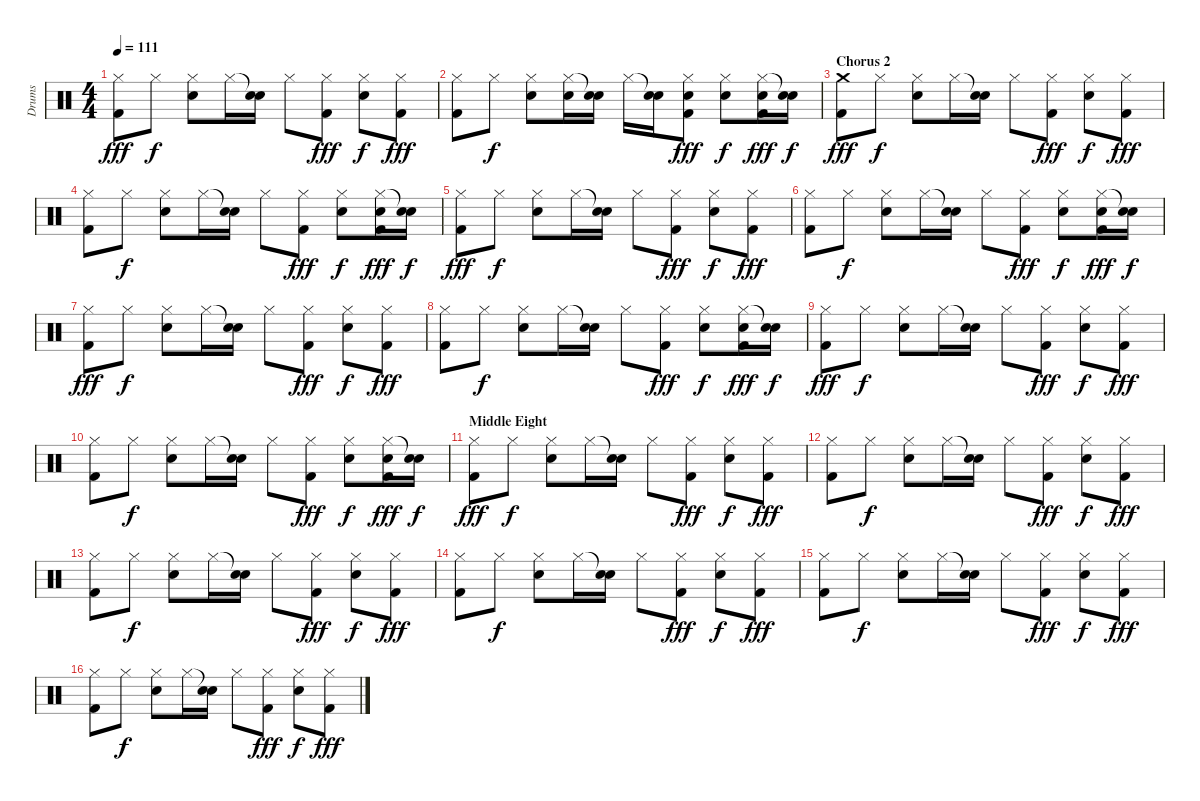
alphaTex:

\track ("Drums" "Drums") {instrument percussion}
\staff {score}
\articulation defaults
\ts (4 4)
\tempo 111
\clef neutral
\ks c
("Hi-Hat (closed)" "Kick (hit) 2").8{dy fff} "Hi-Hat (closed)".8{dy f} ("Hi-Hat (closed)" "Snare (hit) 2").8 "Hi-Hat (closed)".16 ("Snare (hit)"{t} "Snare (hit) 2").16 "Hi-Hat (closed)".8 ("Hi-Hat (closed)" "Kick (hit) 2").8{dy fff} ("Hi-Hat (closed)" "Snare (hit) 2").8{dy f} ("Hi-Hat (closed)" "Kick (hit) 2").8{dy fff} |
("Hi-Hat (closed)" "Kick (hit) 2").8 "Hi-Hat (closed)".8{dy f} ("Hi-Hat (closed)" "Snare (hit) 2").8 ("Hi-Hat (closed)" "Snare (hit) 2").16 ("Snare (hit)"{t} "Snare (hit) 2").16 "Hi-Hat (closed)".16 ("Snare (hit)"{t} "Snare (hit) 2").16 ("Hi-Hat (closed)" "Snare (hit) 2" "Kick (hit) 2").8{dy fff} ("Hi-Hat (closed)" "Snare (hit) 2").8{dy f} ("Hi-Hat (closed)" "Snare (hit) 2" "Kick (hit) 2").16{dy fff} ("Snare (hit)"{t} "Snare (hit) 2").16{dy f} |
\section ("" "Chorus 2")
("Crash medium (hit)" "Kick (hit) 2").8{dy fff} "Hi-Hat (closed)".8{dy f} ("Hi-Hat (closed)" "Snare (hit) 2").8 "Hi-Hat (closed)".16 ("Snare (hit)"{t} "Snare (hit) 2").16 "Hi-Hat (closed)".8 ("Hi-Hat (closed)" "Kick (hit) 2").8{dy fff} ("Hi-Hat (closed)" "Snare (hit) 2").8{dy f} ("Hi-Hat (closed)" "Kick (hit) 2").8{dy fff} |
("Hi-Hat (closed)" "Kick (hit) 2").8 "Hi-Hat (closed)".8{dy f} ("Hi-Hat (closed)" "Snare (hit) 2").8 "Hi-Hat (closed)".16 ("Snare (hit)"{t} "Snare (hit) 2").16 "Hi-Hat (closed)".8 ("Hi-Hat (closed)" "Kick (hit) 2").8{dy fff} ("Hi-Hat (closed)" "Snare (hit) 2").8{dy f} ("Hi-Hat (closed)" "Snare (hit) 2" "Kick (hit) 2").16{dy fff} ("Snare (hit)"{t} "Snare (hit) 2").16{dy f} |
("Hi-Hat (closed)" "Kick (hit) 2").8{dy fff} "Hi-Hat (closed)".8{dy f} ("Hi-Hat (closed)" "Snare (hit) 2").8 "Hi-Hat (closed)".16 ("Snare (hit)"{t} "Snare (hit) 2").16 "Hi-Hat (closed)".8 ("Hi-Hat (closed)" "Kick (hit) 2").8{dy fff} ("Hi-Hat (closed)" "Snare (hit) 2").8{dy f} ("Hi-Hat (closed)" "Kick (hit) 2").8{dy fff} |
("Hi-Hat (closed)" "Kick (hit) 2").8 "Hi-Hat (closed)".8{dy f} ("Hi-Hat (closed)" "Snare (hit) 2").8 "Hi-Hat (closed)".16 ("Snare (hit)"{t} "Snare (hit) 2").16 "Hi-Hat (closed)".8 ("Hi-Hat (closed)" "Kick (hit) 2").8{dy fff} ("Hi-Hat (closed)" "Snare (hit) 2").8{dy f} ("Hi-Hat (closed)" "Snare (hit) 2" "Kick (hit) 2").16{dy fff} ("Snare (hit)"{t} "Snare (hit) 2").16{dy f} |
("Hi-Hat (closed)" "Kick (hit) 2").8{dy fff} "Hi-Hat (closed)".8{dy f} ("Hi-Hat (closed)" "Snare (hit) 2").8 "Hi-Hat (closed)".16 ("Snare (hit)"{t} "Snare (hit) 2").16 "Hi-Hat (closed)".8 ("Hi-Hat (closed)" "Kick (hit) 2").8{dy fff} ("Hi-Hat (closed)" "Snare (hit) 2").8{dy f} ("Hi-Hat (closed)" "Kick (hit) 2").8{dy fff} |
("Hi-Hat (closed)" "Kick (hit) 2").8 "Hi-Hat (closed)".8{dy f} ("Hi-Hat (closed)" "Snare (hit) 2").8 "Hi-Hat (closed)".16 ("Snare (hit)"{t} "Snare (hit) 2").16 "Hi-Hat (closed)".8 ("Hi-Hat (closed)" "Kick (hit) 2").8{dy fff} ("Hi-Hat (closed)" "Snare (hit) 2").8{dy f} ("Hi-Hat (closed)" "Snare (hit) 2" "Kick (hit) 2").16{dy fff} ("Snare (hit)"{t} "Snare (hit) 2").16{dy f} |
("Hi-Hat (closed)" "Kick (hit) 2").8{dy fff} "Hi-Hat (closed)".8{dy f} ("Hi-Hat (closed)" "Snare (hit) 2").8 "Hi-Hat (closed)".16 ("Snare (hit)"{t} "Snare (hit) 2").16 "Hi-Hat (closed)".8 ("Hi-Hat (closed)" "Kick (hit) 2").8{dy fff} ("Hi-Hat (closed)" "Snare (hit) 2").8{dy f} ("Hi-Hat (closed)" "Kick (hit) 2").8{dy fff} |
("Hi-Hat (closed)" "Kick (hit) 2").8 "Hi-Hat (closed)".8{dy f} ("Hi-Hat (closed)" "Snare (hit) 2").8 "Hi-Hat (closed)".16 ("Snare (hit)"{t} "Snare (hit) 2").16 "Hi-Hat (closed)".8 ("Hi-Hat (closed)" "Kick (hit) 2").8{dy fff} ("Hi-Hat (closed)" "Snare (hit) 2").8{dy f} ("Hi-Hat (closed)" "Snare (hit) 2" "Kick (hit) 2").16{dy fff} ("Snare (hit)"{t} "Snare (hit) 2").16{dy f} |
\section ("" "Middle Eight")
("Hi-Hat (closed)" "Kick (hit) 2").8{dy fff} "Hi-Hat (closed)".8{dy f} ("Hi-Hat (closed)" "Snare (hit) 2").8 "Hi-Hat (closed)".16 ("Snare (hit)"{t} "Snare (hit) 2").16 "Hi-Hat (closed)".8 ("Hi-Hat (closed)" "Kick (hit) 2").8{dy fff} ("Hi-Hat (closed)" "Snare (hit) 2").8{dy f} ("Hi-Hat (closed)" "Kick (hit) 2").8{dy fff} |
("Hi-Hat (closed)" "Kick (hit) 2").8 "Hi-Hat (closed)".8{dy f} ("Hi-Hat (closed)" "Snare (hit) 2").8 "Hi-Hat (closed)".16 ("Snare (hit)"{t} "Snare (hit) 2").16 "Hi-Hat (closed)".8 ("Hi-Hat (closed)" "Kick (hit) 2").8{dy fff} ("Hi-Hat (closed)" "Snare (hit) 2").8{dy f} ("Hi-Hat (closed)" "Kick (hit) 2").8{dy fff} |
("Hi-Hat (closed)" "Kick (hit) 2").8 "Hi-Hat (closed)".8{dy f} ("Hi-Hat (closed)" "Snare (hit) 2").8 "Hi-Hat (closed)".16 ("Snare (hit)"{t} "Snare (hit) 2").16 "Hi-Hat (closed)".8 ("Hi-Hat (closed)" "Kick (hit) 2").8{dy fff} ("Hi-Hat (closed)" "Snare (hit) 2").8{dy f} ("Hi-Hat (closed)" "Kick (hit) 2").8{dy fff} |
("Hi-Hat (closed)" "Kick (hit) 2").8 "Hi-Hat (closed)".8{dy f} ("Hi-Hat (closed)" "Snare (hit) 2").8 "Hi-Hat (closed)".16 ("Snare (hit)"{t} "Snare (hit) 2").16 "Hi-Hat (closed)".8 ("Hi-Hat (closed)" "Kick (hit) 2").8{dy fff} ("Hi-Hat (closed)" "Snare (hit) 2").8{dy f} ("Hi-Hat (closed)" "Kick (hit) 2").8{dy fff} |
("Hi-Hat (closed)" "Kick (hit) 2").8 "Hi-Hat (closed)".8{dy f} ("Hi-Hat (closed)" "Snare (hit) 2").8 "Hi-Hat (closed)".16 ("Snare (hit)"{t} "Snare (hit) 2").16 "Hi-Hat (closed)".8 ("Hi-Hat (closed)" "Kick (hit) 2").8{dy fff} ("Hi-Hat (closed)" "Snare (hit) 2").8{dy f} ("Hi-Hat (closed)" "Kick (hit) 2").8{dy fff} |
("Hi-Hat (closed)" "Kick (hit) 2").8 "Hi-Hat (closed)".8{dy f} ("Hi-Hat (closed)" "Snare (hit) 2").8 "Hi-Hat (closed)".16 ("Snare (hit)"{t} "Snare (hit) 2").16 "Hi-Hat (closed)".8 ("Hi-Hat (closed)" "Kick (hit) 2").8{dy fff} ("Hi-Hat (closed)" "Snare (hit) 2").8{dy f} ("Hi-Hat (closed)" "Kick (hit) 2").8{dy fff}
